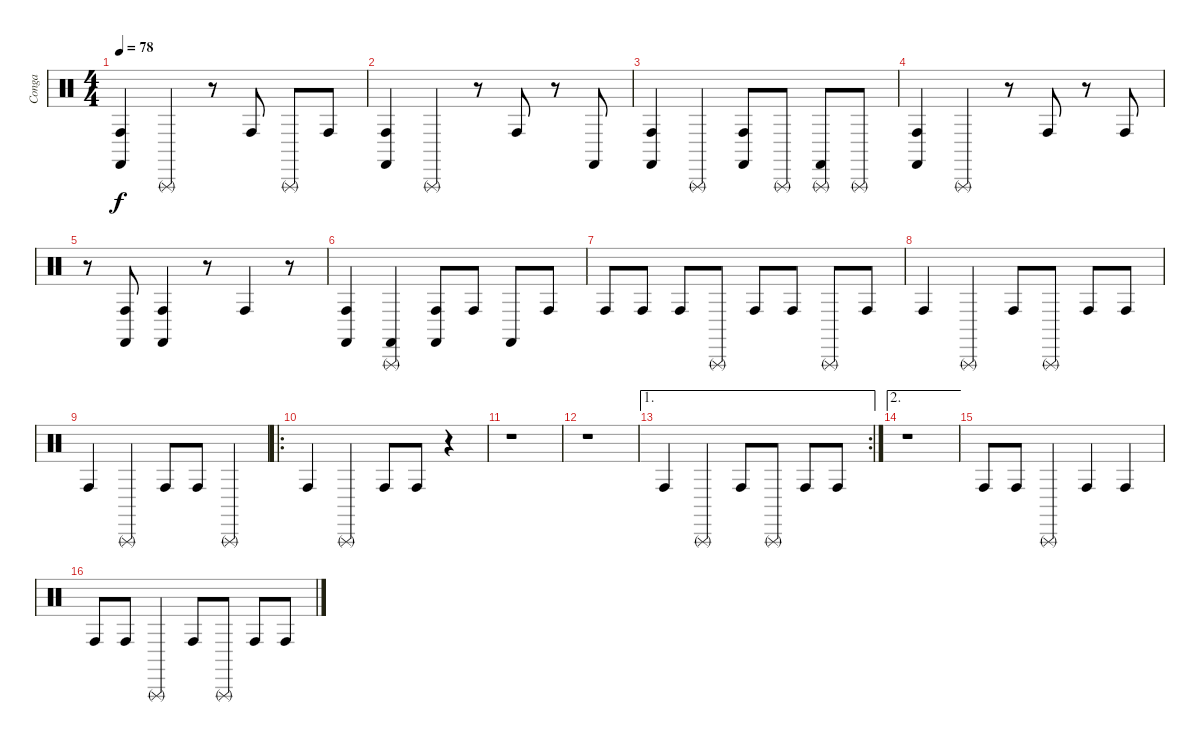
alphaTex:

\track ("Conga" "Conga") {instrument percussion}
\staff {score}
\articulation defaults
\ts (4 4)
\tempo 78
\clef neutral
\ks c
("Castanets (hit)" "Conga high (hit)").4{dy f} "Triangle (rnute)".4 r.8 "Conga high (hit)".8 "Triangle (rnute)".8 "Conga high (hit)".8 |
("Castanets (hit)" "Conga high (hit)").4 "Triangle (rnute)".4 r.8 "Conga high (hit)".8 r.8 "Castanets (hit)".8 |
("Castanets (hit)" "Conga high (hit)").4 "Triangle (rnute)".4 ("Castanets (hit)" "Conga high (hit)").8 "Triangle (rnute)".8 ("Triangle (rnute)" "Castanets (hit)").8 "Triangle (rnute)".8 |
("Castanets (hit)" "Conga high (hit)").4 "Triangle (rnute)".4 r.8 "Conga high (hit)".8 r.8 "Conga high (hit)".8 |
r.8 ("Castanets (hit)" "Conga high (hit)").8 ("Castanets (hit)" "Conga high (hit)").4 r.8 "Conga high (hit)".4 r.8 |
("Castanets (hit)" "Conga high (hit)").4 ("Triangle (rnute)" "Castanets (hit)").4 ("Castanets (hit)" "Conga high (hit)").8 "Conga high (hit)".8 "Castanets (hit)".8 "Conga high (hit)".8 |
"Conga high (hit)".8 "Conga high (hit)".8 "Conga high (hit)".8 "Triangle (rnute)".8 "Conga high (hit)".8 "Conga high (hit)".8 "Triangle (rnute)".8 "Conga high (hit)".8 |
"Conga high (hit)".4 "Triangle (rnute)".4 "Conga high (hit)".8 "Triangle (rnute)".8 "Conga high (hit)".8 "Conga high (hit)".8 |
"Conga high (hit)".4 "Triangle (rnute)".4 "Conga high (hit)".8 "Conga high (hit)".8 "Triangle (rnute)".4 |
\ro "Conga high (hit)".4 "Triangle (rnute)".4 "Conga high (hit)".8 "Conga high (hit)".8
r.4 |
r.1 |
r.1 |
\ae 1
\rc 2 "Conga high (hit)".4 "Triangle (rnute)".4 "Conga high (hit)".8 "Triangle (rnute)".8 "Conga high (hit)".8 "Conga high (hit)".8
|
\ae 2
r.1 |
"Conga high (hit)".8 "Conga high (hit)".8 "Triangle (rnute)".4 "Conga high (hit)".4 "Conga high (hit)".4 |
"Conga high (hit)".8 "Conga high (hit)".8 "Triangle (rnute)".4 "Conga high (hit)".8 "Triangle (rnute)".8 "Conga high (hit)".8 "Conga high (hit)".8
